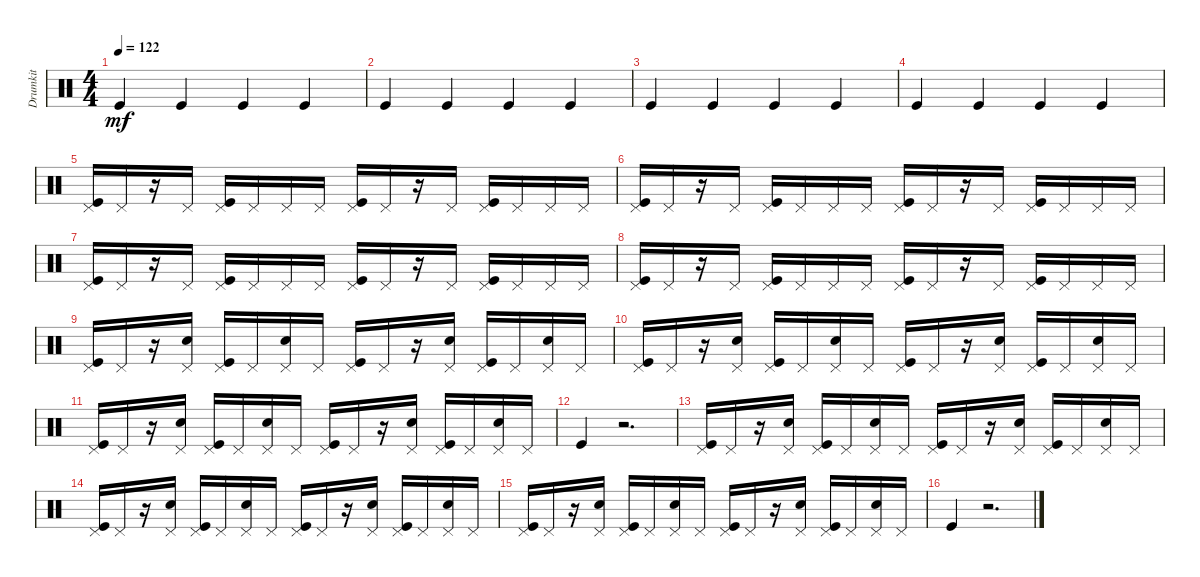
\track ("Drumkit" "Drumkit") {instrument percussion}
\staff {score}
\articulation defaults
\ts (4 4)
\tempo 122
\clef neutral
\ks c "Kick (hit)".4{dy mf} "Kick (hit)".4 "Kick (hit)".4 "Kick (hit)".4
|
"Kick (hit)".4 "Kick (hit)".4 "Kick (hit)".4 "Kick (hit)".4 |
"Kick (hit)".4 "Kick (hit)".4 "Kick (hit)".4 "Kick (hit)".4 |
"Kick (hit)".4 "Kick (hit)".4 "Kick (hit)".4 "Kick (hit)".4 |
("Kick (hit)" "Pedal Hi-Hat (hit)").16 "Pedal Hi-Hat (hit)".16 r.16 "Pedal Hi-Hat (hit)".16 ("Kick (hit)" "Pedal Hi-Hat (hit)").16 "Pedal Hi-Hat (hit)".16 "Pedal Hi-Hat (hit)".16 "Pedal Hi-Hat (hit)".16 ("Kick (hit)" "Pedal Hi-Hat (hit)").16 "Pedal Hi-Hat (hit)".16 r.16 "Pedal Hi-Hat (hit)".16 ("Kick (hit)" "Pedal Hi-Hat (hit)").16 "Pedal Hi-Hat (hit)".16 "Pedal Hi-Hat (hit)".16 "Pedal Hi-Hat (hit)".16 |
("Kick (hit)" "Pedal Hi-Hat (hit)").16 "Pedal Hi-Hat (hit)".16 r.16 "Pedal Hi-Hat (hit)".16 ("Kick (hit)" "Pedal Hi-Hat (hit)").16 "Pedal Hi-Hat (hit)".16 "Pedal Hi-Hat (hit)".16 "Pedal Hi-Hat (hit)".16 ("Kick (hit)" "Pedal Hi-Hat (hit)").16 "Pedal Hi-Hat (hit)".16 r.16 "Pedal Hi-Hat (hit)".16 ("Kick (hit)" "Pedal Hi-Hat (hit)").16 "Pedal Hi-Hat (hit)".16 "Pedal Hi-Hat (hit)".16 "Pedal Hi-Hat (hit)".16 |
("Kick (hit)" "Pedal Hi-Hat (hit)").16 "Pedal Hi-Hat (hit)".16 r.16 "Pedal Hi-Hat (hit)".16 ("Kick (hit)" "Pedal Hi-Hat (hit)").16 "Pedal Hi-Hat (hit)".16 "Pedal Hi-Hat (hit)".16 "Pedal Hi-Hat (hit)".16 ("Kick (hit)" "Pedal Hi-Hat (hit)").16 "Pedal Hi-Hat (hit)".16 r.16 "Pedal Hi-Hat (hit)".16 ("Kick (hit)" "Pedal Hi-Hat (hit)").16 "Pedal Hi-Hat (hit)".16 "Pedal Hi-Hat (hit)".16 "Pedal Hi-Hat (hit)".16 |
("Kick (hit)" "Pedal Hi-Hat (hit)").16 "Pedal Hi-Hat (hit)".16 r.16 "Pedal Hi-Hat (hit)".16 ("Kick (hit)" "Pedal Hi-Hat (hit)").16 "Pedal Hi-Hat (hit)".16 "Pedal Hi-Hat (hit)".16 "Pedal Hi-Hat (hit)".16 ("Kick (hit)" "Pedal Hi-Hat (hit)").16 "Pedal Hi-Hat (hit)".16 r.16 "Pedal Hi-Hat (hit)".16 ("Kick (hit)" "Pedal Hi-Hat (hit)").16 "Pedal Hi-Hat (hit)".16 "Pedal Hi-Hat (hit)".16 "Pedal Hi-Hat (hit)".16 |
("Kick (hit)" "Pedal Hi-Hat (hit)").16 "Pedal Hi-Hat (hit)".16 r.16 ("Snare (hit) 2" "Pedal Hi-Hat (hit)").16 ("Kick (hit)" "Pedal Hi-Hat (hit)").16 "Pedal Hi-Hat (hit)".16 ("Snare (hit) 2" "Pedal Hi-Hat (hit)").16 "Pedal Hi-Hat (hit)".16 ("Kick (hit)" "Pedal Hi-Hat (hit)").16 "Pedal Hi-Hat (hit)".16 r.16 ("Snare (hit) 2" "Pedal Hi-Hat (hit)").16 ("Kick (hit)" "Pedal Hi-Hat (hit)").16 "Pedal Hi-Hat (hit)".16 ("Snare (hit) 2" "Pedal Hi-Hat (hit)").16 "Pedal Hi-Hat (hit)".16 |
("Kick (hit)" "Pedal Hi-Hat (hit)").16 "Pedal Hi-Hat (hit)".16 r.16 ("Snare (hit) 2" "Pedal Hi-Hat (hit)").16 ("Kick (hit)" "Pedal Hi-Hat (hit)").16 "Pedal Hi-Hat (hit)".16 ("Snare (hit) 2" "Pedal Hi-Hat (hit)").16 "Pedal Hi-Hat (hit)".16 ("Kick (hit)" "Pedal Hi-Hat (hit)").16 "Pedal Hi-Hat (hit)".16 r.16 ("Snare (hit) 2" "Pedal Hi-Hat (hit)").16 ("Kick (hit)" "Pedal Hi-Hat (hit)").16 "Pedal Hi-Hat (hit)".16 ("Snare (hit) 2" "Pedal Hi-Hat (hit)").16 "Pedal Hi-Hat (hit)".16 |
("Kick (hit)" "Pedal Hi-Hat (hit)").16 "Pedal Hi-Hat (hit)".16 r.16 ("Snare (hit) 2" "Pedal Hi-Hat (hit)").16 ("Kick (hit)" "Pedal Hi-Hat (hit)").16 "Pedal Hi-Hat (hit)".16 ("Snare (hit) 2" "Pedal Hi-Hat (hit)").16 "Pedal Hi-Hat (hit)".16 ("Kick (hit)" "Pedal Hi-Hat (hit)").16 "Pedal Hi-Hat (hit)".16 r.16 ("Snare (hit) 2" "Pedal Hi-Hat (hit)").16 ("Kick (hit)" "Pedal Hi-Hat (hit)").16 "Pedal Hi-Hat (hit)".16 ("Snare (hit) 2" "Pedal Hi-Hat (hit)").16 "Pedal Hi-Hat (hit)".16 |
"Kick (hit)".4 r.2{d} |
("Kick (hit)" "Pedal Hi-Hat (hit)").16 "Pedal Hi-Hat (hit)".16 r.16 ("Snare (hit) 2" "Pedal Hi-Hat (hit)").16 ("Kick (hit)" "Pedal Hi-Hat (hit)").16 "Pedal Hi-Hat (hit)".16 ("Snare (hit) 2" "Pedal Hi-Hat (hit)").16 "Pedal Hi-Hat (hit)".16 ("Kick (hit)" "Pedal Hi-Hat (hit)").16 "Pedal Hi-Hat (hit)".16 r.16 ("Snare (hit) 2" "Pedal Hi-Hat (hit)").16 ("Kick (hit)" "Pedal Hi-Hat (hit)").16 "Pedal Hi-Hat (hit)".16 ("Snare (hit) 2" "Pedal Hi-Hat (hit)").16 "Pedal Hi-Hat (hit)".16 |
("Kick (hit)" "Pedal Hi-Hat (hit)").16 "Pedal Hi-Hat (hit)".16 r.16 ("Snare (hit) 2" "Pedal Hi-Hat (hit)").16 ("Kick (hit)" "Pedal Hi-Hat (hit)").16 "Pedal Hi-Hat (hit)".16 ("Snare (hit) 2" "Pedal Hi-Hat (hit)").16 "Pedal Hi-Hat (hit)".16 ("Kick (hit)" "Pedal Hi-Hat (hit)").16 "Pedal Hi-Hat (hit)".16 r.16 ("Snare (hit) 2" "Pedal Hi-Hat (hit)").16 ("Kick (hit)" "Pedal Hi-Hat (hit)").16 "Pedal Hi-Hat (hit)".16 ("Snare (hit) 2" "Pedal Hi-Hat (hit)").16 "Pedal Hi-Hat (hit)".16 |
("Kick (hit)" "Pedal Hi-Hat (hit)").16 "Pedal Hi-Hat (hit)".16 r.16 ("Snare (hit) 2" "Pedal Hi-Hat (hit)").16 ("Kick (hit)" "Pedal Hi-Hat (hit)").16 "Pedal Hi-Hat (hit)".16 ("Snare (hit) 2" "Pedal Hi-Hat (hit)").16 "Pedal Hi-Hat (hit)".16 ("Kick (hit)" "Pedal Hi-Hat (hit)").16 "Pedal Hi-Hat (hit)".16 r.16 ("Snare (hit) 2" "Pedal Hi-Hat (hit)").16 ("Kick (hit)" "Pedal Hi-Hat (hit)").16 "Pedal Hi-Hat (hit)".16 ("Snare (hit) 2" "Pedal Hi-Hat (hit)").16 "Pedal Hi-Hat (hit)".16 |
"Kick (hit)".4 r.2{d}
